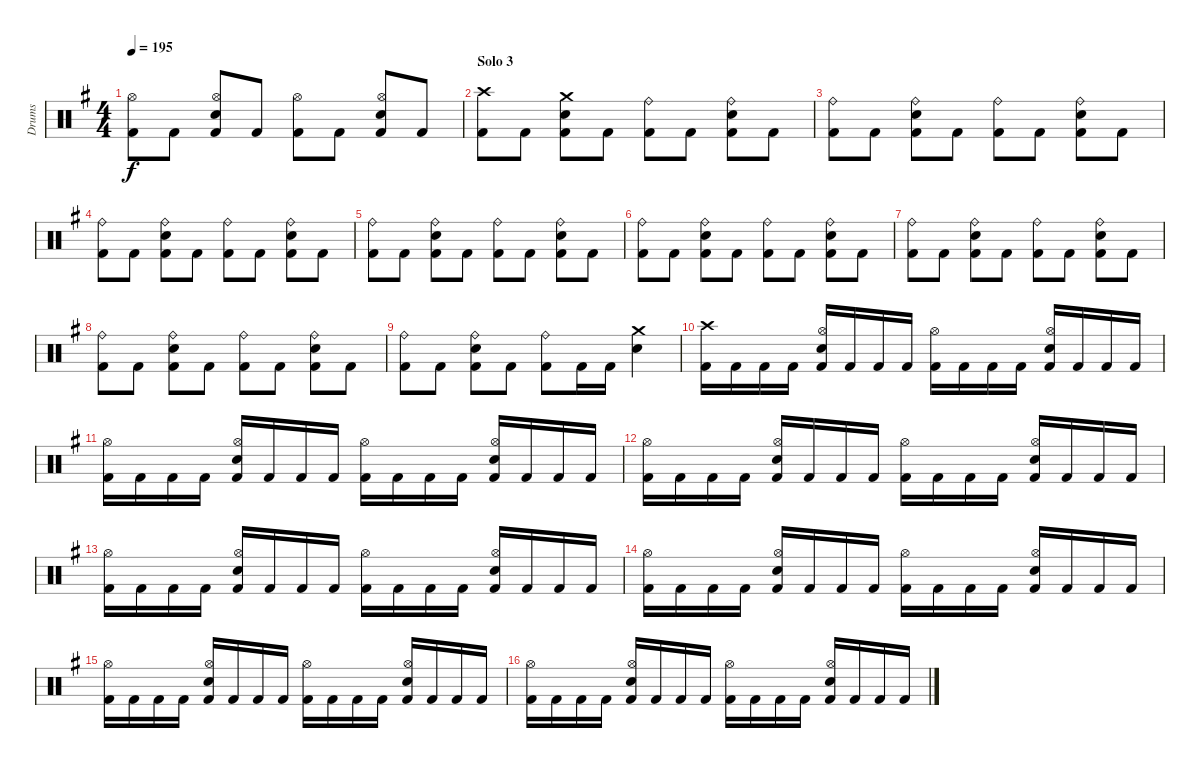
\track ("Drums" "Drums") {instrument percussion}
\staff {score}
\articulation defaults
\ts (4 4)
\tempo 195
\clef neutral
\ks eminor
("Kick (hit) 2" "Hi-Hat (open)").8{dy f} "Kick (hit) 2".8 ("Kick (hit) 2" "Electric Snare (hit)" "Hi-Hat (open)").8 "Kick (hit) 2".8 ("Kick (hit) 2" "Hi-Hat (open)").8 "Kick (hit) 2".8 ("Kick (hit) 2" "Electric Snare (hit)" "Hi-Hat (open)").8 "Kick (hit) 2".8 |
\section ("" "Solo 3")
("Kick (hit) 2" "Crash high (hit)").8 "Kick (hit) 2".8 ("Kick (hit) 2" "Electric Snare (hit)" "Crash medium (hit)").8 "Kick (hit) 2".8 ("Kick (hit) 2" "Ride (bell)").8 "Kick (hit) 2".8 ("Kick (hit) 2" "Electric Snare (hit)" "Ride (bell)").8 "Kick (hit) 2".8 |
("Kick (hit) 2" "Ride (bell)").8 "Kick (hit) 2".8 ("Kick (hit) 2" "Electric Snare (hit)" "Ride (bell)").8 "Kick (hit) 2".8 ("Kick (hit) 2" "Ride (bell)").8 "Kick (hit) 2".8 ("Kick (hit) 2" "Electric Snare (hit)" "Ride (bell)").8 "Kick (hit) 2".8 |
("Kick (hit) 2" "Ride (bell)").8 "Kick (hit) 2".8 ("Kick (hit) 2" "Electric Snare (hit)" "Ride (bell)").8 "Kick (hit) 2".8 ("Kick (hit) 2" "Ride (bell)").8 "Kick (hit) 2".8 ("Kick (hit) 2" "Electric Snare (hit)" "Ride (bell)").8 "Kick (hit) 2".8 |
("Kick (hit) 2" "Ride (bell)").8 "Kick (hit) 2".8 ("Kick (hit) 2" "Electric Snare (hit)" "Ride (bell)").8 "Kick (hit) 2".8 ("Kick (hit) 2" "Ride (bell)").8 "Kick (hit) 2".8 ("Kick (hit) 2" "Electric Snare (hit)" "Ride (bell)").8 "Kick (hit) 2".8 |
("Kick (hit) 2" "Ride (bell)").8 "Kick (hit) 2".8 ("Kick (hit) 2" "Electric Snare (hit)" "Ride (bell)").8 "Kick (hit) 2".8 ("Kick (hit) 2" "Ride (bell)").8 "Kick (hit) 2".8 ("Kick (hit) 2" "Electric Snare (hit)" "Ride (bell)").8 "Kick (hit) 2".8 |
("Kick (hit) 2" "Ride (bell)").8 "Kick (hit) 2".8 ("Kick (hit) 2" "Electric Snare (hit)" "Ride (bell)").8 "Kick (hit) 2".8 ("Kick (hit) 2" "Ride (bell)").8 "Kick (hit) 2".8 ("Kick (hit) 2" "Electric Snare (hit)" "Ride (bell)").8 "Kick (hit) 2".8 |
("Kick (hit) 2" "Ride (bell)").8 "Kick (hit) 2".8 ("Kick (hit) 2" "Electric Snare (hit)" "Ride (bell)").8 "Kick (hit) 2".8 ("Kick (hit) 2" "Ride (bell)").8 "Kick (hit) 2".8 ("Kick (hit) 2" "Electric Snare (hit)" "Ride (bell)").8 "Kick (hit) 2".8 |
("Kick (hit) 2" "Ride (bell)").8 "Kick (hit) 2".8 ("Kick (hit) 2" "Electric Snare (hit)" "Ride (bell)").8 "Kick (hit) 2".8 ("Kick (hit) 2" "Ride (bell)").8 "Kick (hit) 2".16 "Kick (hit) 2".16 ("Electric Snare (hit)" "Crash medium (hit)").4 |
\section ("" "")
("Kick (hit) 2" "Crash high (hit)").16 "Kick (hit) 2".16 "Kick (hit) 2".16 "Kick (hit) 2".16 ("Kick (hit) 2" "Electric Snare (hit)" "Hi-Hat (open)").16 "Kick (hit) 2".16 "Kick (hit) 2".16 "Kick (hit) 2".16 ("Kick (hit) 2" "Hi-Hat (open)").16 "Kick (hit) 2".16 "Kick (hit) 2".16 "Kick (hit) 2".16 ("Kick (hit) 2" "Electric Snare (hit)" "Hi-Hat (open)").16 "Kick (hit) 2".16 "Kick (hit) 2".16 "Kick (hit) 2".16 |
("Kick (hit) 2" "Hi-Hat (open)").16 "Kick (hit) 2".16 "Kick (hit) 2".16 "Kick (hit) 2".16 ("Kick (hit) 2" "Electric Snare (hit)" "Hi-Hat (open)").16 "Kick (hit) 2".16 "Kick (hit) 2".16 "Kick (hit) 2".16 ("Kick (hit) 2" "Hi-Hat (open)").16 "Kick (hit) 2".16 "Kick (hit) 2".16 "Kick (hit) 2".16 ("Kick (hit) 2" "Electric Snare (hit)" "Hi-Hat (open)").16 "Kick (hit) 2".16 "Kick (hit) 2".16 "Kick (hit) 2".16 |
("Kick (hit) 2" "Hi-Hat (open)").16 "Kick (hit) 2".16 "Kick (hit) 2".16 "Kick (hit) 2".16 ("Kick (hit) 2" "Electric Snare (hit)" "Hi-Hat (open)").16 "Kick (hit) 2".16 "Kick (hit) 2".16 "Kick (hit) 2".16 ("Kick (hit) 2" "Hi-Hat (open)").16 "Kick (hit) 2".16 "Kick (hit) 2".16 "Kick (hit) 2".16 ("Kick (hit) 2" "Electric Snare (hit)" "Hi-Hat (open)").16 "Kick (hit) 2".16 "Kick (hit) 2".16 "Kick (hit) 2".16 |
("Kick (hit) 2" "Hi-Hat (open)").16 "Kick (hit) 2".16 "Kick (hit) 2".16 "Kick (hit) 2".16 ("Kick (hit) 2" "Electric Snare (hit)" "Hi-Hat (open)").16 "Kick (hit) 2".16 "Kick (hit) 2".16 "Kick (hit) 2".16 ("Kick (hit) 2" "Hi-Hat (open)").16 "Kick (hit) 2".16 "Kick (hit) 2".16 "Kick (hit) 2".16 ("Kick (hit) 2" "Electric Snare (hit)" "Hi-Hat (open)").16 "Kick (hit) 2".16 "Kick (hit) 2".16 "Kick (hit) 2".16 |
("Kick (hit) 2" "Hi-Hat (open)").16 "Kick (hit) 2".16 "Kick (hit) 2".16 "Kick (hit) 2".16 ("Kick (hit) 2" "Electric Snare (hit)" "Hi-Hat (open)").16 "Kick (hit) 2".16 "Kick (hit) 2".16 "Kick (hit) 2".16 ("Kick (hit) 2" "Hi-Hat (open)").16 "Kick (hit) 2".16 "Kick (hit) 2".16 "Kick (hit) 2".16 ("Kick (hit) 2" "Electric Snare (hit)" "Hi-Hat (open)").16 "Kick (hit) 2".16 "Kick (hit) 2".16 "Kick (hit) 2".16 |
("Kick (hit) 2" "Hi-Hat (open)").16 "Kick (hit) 2".16 "Kick (hit) 2".16 "Kick (hit) 2".16 ("Kick (hit) 2" "Electric Snare (hit)" "Hi-Hat (open)").16 "Kick (hit) 2".16 "Kick (hit) 2".16 "Kick (hit) 2".16 ("Kick (hit) 2" "Hi-Hat (open)").16 "Kick (hit) 2".16 "Kick (hit) 2".16 "Kick (hit) 2".16 ("Kick (hit) 2" "Electric Snare (hit)" "Hi-Hat (open)").16 "Kick (hit) 2".16 "Kick (hit) 2".16 "Kick (hit) 2".16 |
("Kick (hit) 2" "Hi-Hat (open)").16 "Kick (hit) 2".16 "Kick (hit) 2".16 "Kick (hit) 2".16 ("Kick (hit) 2" "Electric Snare (hit)" "Hi-Hat (open)").16 "Kick (hit) 2".16 "Kick (hit) 2".16 "Kick (hit) 2".16 ("Kick (hit) 2" "Hi-Hat (open)").16 "Kick (hit) 2".16 "Kick (hit) 2".16 "Kick (hit) 2".16 ("Kick (hit) 2" "Electric Snare (hit)" "Hi-Hat (open)").16 "Kick (hit) 2".16 "Kick (hit) 2".16 "Kick (hit) 2".16
